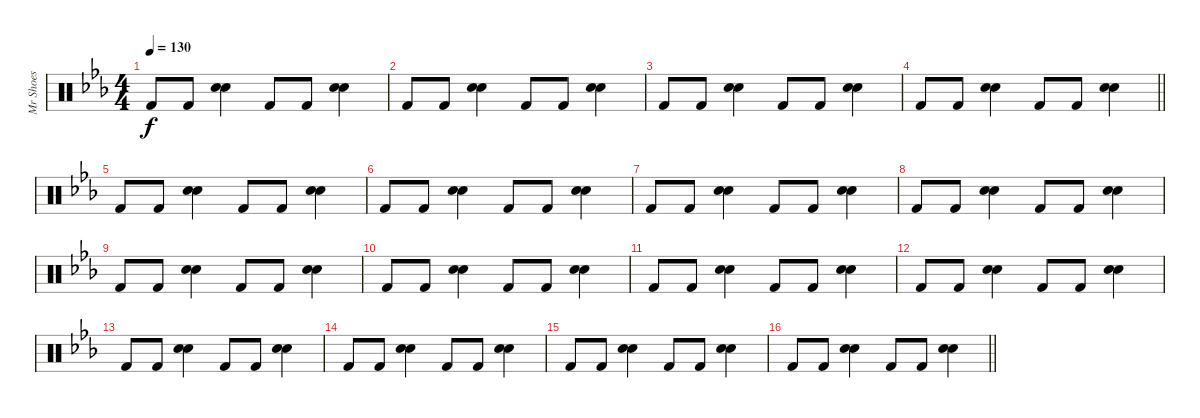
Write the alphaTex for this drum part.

\track ("Mr Shoes " "Mr Shoes ") {instrument percussion}
\staff {score}
\articulation defaults
\ts (4 4)
\tempo 130
\clef neutral
\ks eb "Kick (hit) 2".8{dy f} "Kick (hit) 2".8
("Electric Snare (hit)" "Snare (hit) 2").4 "Kick (hit) 2".8 "Kick (hit) 2".8 ("Electric Snare (hit)" "Snare (hit) 2").4 |
"Kick (hit) 2".8 "Kick (hit) 2".8 ("Electric Snare (hit)" "Snare (hit) 2").4 "Kick (hit) 2".8 "Kick (hit) 2".8 ("Electric Snare (hit)" "Snare (hit) 2").4 |
"Kick (hit) 2".8 "Kick (hit) 2".8 ("Electric Snare (hit)" "Snare (hit) 2").4 "Kick (hit) 2".8 "Kick (hit) 2".8 ("Electric Snare (hit)" "Snare (hit) 2").4 |
\barLineRight lightlight "Kick (hit) 2".8 "Kick (hit) 2".8
("Electric Snare (hit)" "Snare (hit) 2").4 "Kick (hit) 2".8 "Kick (hit) 2".8 ("Electric Snare (hit)" "Snare (hit) 2").4 |
"Kick (hit) 2".8 "Kick (hit) 2".8 ("Electric Snare (hit)" "Snare (hit) 2").4 "Kick (hit) 2".8 "Kick (hit) 2".8 ("Electric Snare (hit)" "Snare (hit) 2").4 |
"Kick (hit) 2".8 "Kick (hit) 2".8 ("Electric Snare (hit)" "Snare (hit) 2").4 "Kick (hit) 2".8 "Kick (hit) 2".8 ("Electric Snare (hit)" "Snare (hit) 2").4 |
"Kick (hit) 2".8 "Kick (hit) 2".8 ("Electric Snare (hit)" "Snare (hit) 2").4 "Kick (hit) 2".8 "Kick (hit) 2".8 ("Electric Snare (hit)" "Snare (hit) 2").4 |
"Kick (hit) 2".8 "Kick (hit) 2".8 ("Electric Snare (hit)" "Snare (hit) 2").4 "Kick (hit) 2".8 "Kick (hit) 2".8 ("Electric Snare (hit)" "Snare (hit) 2").4 |
"Kick (hit) 2".8 "Kick (hit) 2".8 ("Electric Snare (hit)" "Snare (hit) 2").4 "Kick (hit) 2".8 "Kick (hit) 2".8 ("Electric Snare (hit)" "Snare (hit) 2").4 |
"Kick (hit) 2".8 "Kick (hit) 2".8 ("Electric Snare (hit)" "Snare (hit) 2").4 "Kick (hit) 2".8 "Kick (hit) 2".8 ("Electric Snare (hit)" "Snare (hit) 2").4 |
"Kick (hit) 2".8 "Kick (hit) 2".8 ("Electric Snare (hit)" "Snare (hit) 2").4 "Kick (hit) 2".8 "Kick (hit) 2".8 ("Electric Snare (hit)" "Snare (hit) 2").4 |
"Kick (hit) 2".8 "Kick (hit) 2".8 ("Electric Snare (hit)" "Snare (hit) 2").4 "Kick (hit) 2".8 "Kick (hit) 2".8 ("Electric Snare (hit)" "Snare (hit) 2").4 |
"Kick (hit) 2".8 "Kick (hit) 2".8 ("Electric Snare (hit)" "Snare (hit) 2").4 "Kick (hit) 2".8 "Kick (hit) 2".8 ("Electric Snare (hit)" "Snare (hit) 2").4 |
"Kick (hit) 2".8 "Kick (hit) 2".8 ("Electric Snare (hit)" "Snare (hit) 2").4 "Kick (hit) 2".8 "Kick (hit) 2".8 ("Electric Snare (hit)" "Snare (hit) 2").4 |
"Kick (hit) 2".8 "Kick (hit) 2".8 ("Electric Snare (hit)" "Snare (hit) 2").4 "Kick (hit) 2".8 "Kick (hit) 2".8 ("Electric Snare (hit)" "Snare (hit) 2").4 |
\barLineRight lightlight "Kick (hit) 2".8 "Kick (hit) 2".8
("Electric Snare (hit)" "Snare (hit) 2").4 "Kick (hit) 2".8 "Kick (hit) 2".8 ("Electric Snare (hit)" "Snare (hit) 2").4
